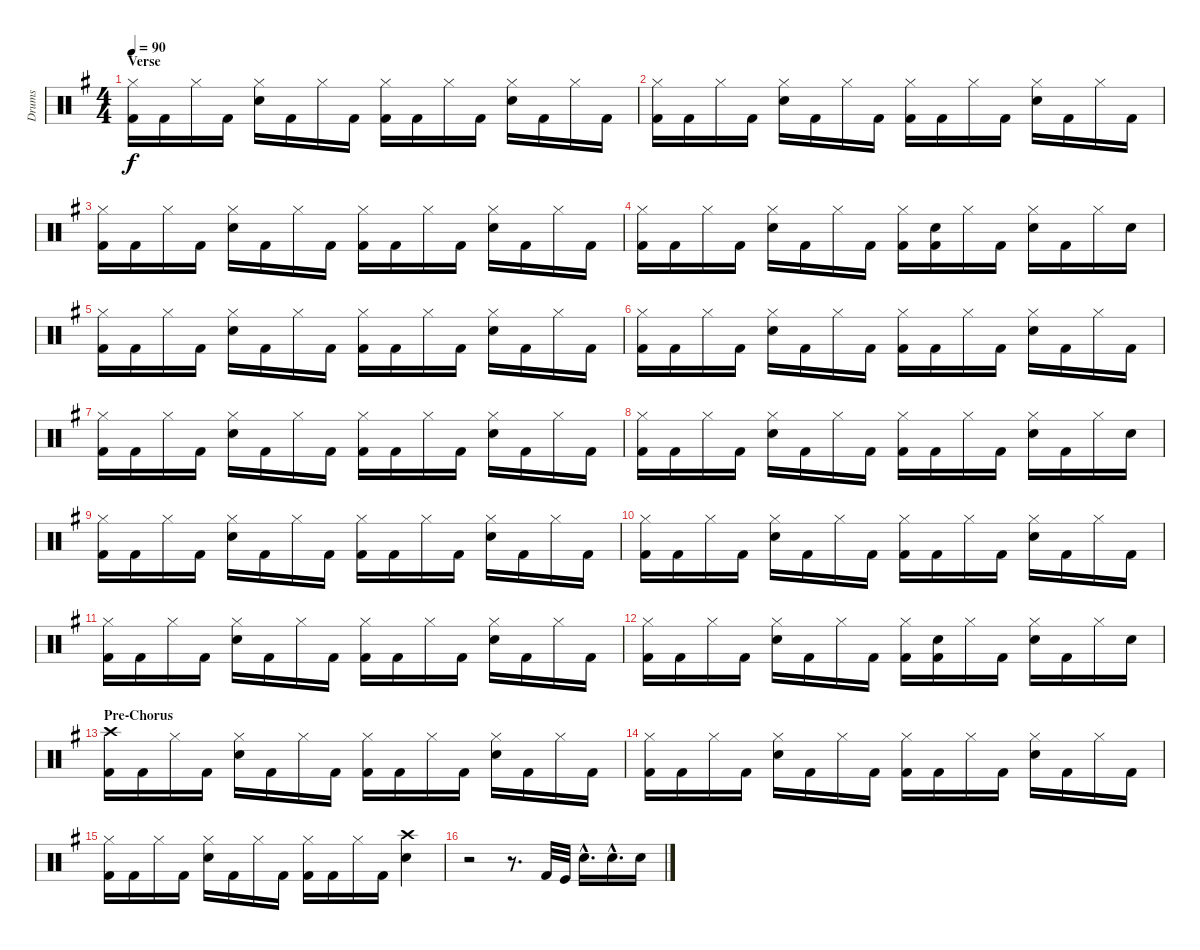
\track ("Drums" "Drums") {instrument percussion}
\staff {score}
\articulation defaults
\ts (4 4)
\section ("" "Verse")
\tempo 90
\clef neutral
\ks g
("Hi-Hat (closed)" "Kick (hit) 2").16{dy f volume 13} "Kick (hit) 2".16 "Hi-Hat (closed)".16 "Kick (hit) 2".16 ("Hi-Hat (closed)" "Electric Snare (hit)").16 "Kick (hit) 2".16 "Hi-Hat (closed)".16 "Kick (hit) 2".16 ("Hi-Hat (closed)" "Kick (hit) 2").16 "Kick (hit) 2".16 "Hi-Hat (closed)".16 "Kick (hit) 2".16 ("Hi-Hat (closed)" "Electric Snare (hit)").16 "Kick (hit) 2".16 "Hi-Hat (closed)".16 "Kick (hit) 2".16 |
("Hi-Hat (closed)" "Kick (hit) 2").16 "Kick (hit) 2".16 "Hi-Hat (closed)".16 "Kick (hit) 2".16 ("Hi-Hat (closed)" "Electric Snare (hit)").16 "Kick (hit) 2".16 "Hi-Hat (closed)".16 "Kick (hit) 2".16 ("Hi-Hat (closed)" "Kick (hit) 2").16 "Kick (hit) 2".16 "Hi-Hat (closed)".16 "Kick (hit) 2".16 ("Hi-Hat (closed)" "Electric Snare (hit)").16 "Kick (hit) 2".16 "Hi-Hat (closed)".16 "Kick (hit) 2".16 |
("Hi-Hat (closed)" "Kick (hit) 2").16 "Kick (hit) 2".16 "Hi-Hat (closed)".16 "Kick (hit) 2".16 ("Hi-Hat (closed)" "Electric Snare (hit)").16 "Kick (hit) 2".16 "Hi-Hat (closed)".16 "Kick (hit) 2".16 ("Hi-Hat (closed)" "Kick (hit) 2").16 "Kick (hit) 2".16 "Hi-Hat (closed)".16 "Kick (hit) 2".16 ("Hi-Hat (closed)" "Electric Snare (hit)").16 "Kick (hit) 2".16 "Hi-Hat (closed)".16 "Kick (hit) 2".16 |
("Hi-Hat (closed)" "Kick (hit) 2").16 "Kick (hit) 2".16 "Hi-Hat (closed)".16 "Kick (hit) 2".16 ("Hi-Hat (closed)" "Electric Snare (hit)").16 "Kick (hit) 2".16 "Hi-Hat (closed)".16 "Kick (hit) 2".16 ("Hi-Hat (closed)" "Kick (hit) 2").16 ("Electric Snare (hit)" "Kick (hit) 2").16 "Hi-Hat (closed)".16 "Kick (hit) 2".16 ("Hi-Hat (closed)" "Electric Snare (hit)").16 "Kick (hit) 2".16 "Hi-Hat (closed)".16 "Electric Snare (hit)".16 |
("Hi-Hat (closed)" "Kick (hit) 2").16 "Kick (hit) 2".16 "Hi-Hat (closed)".16 "Kick (hit) 2".16 ("Hi-Hat (closed)" "Electric Snare (hit)").16 "Kick (hit) 2".16 "Hi-Hat (closed)".16 "Kick (hit) 2".16 ("Hi-Hat (closed)" "Kick (hit) 2").16 "Kick (hit) 2".16 "Hi-Hat (closed)".16 "Kick (hit) 2".16 ("Hi-Hat (closed)" "Electric Snare (hit)").16 "Kick (hit) 2".16 "Hi-Hat (closed)".16 "Kick (hit) 2".16 |
("Hi-Hat (closed)" "Kick (hit) 2").16 "Kick (hit) 2".16 "Hi-Hat (closed)".16 "Kick (hit) 2".16 ("Hi-Hat (closed)" "Electric Snare (hit)").16 "Kick (hit) 2".16 "Hi-Hat (closed)".16 "Kick (hit) 2".16 ("Hi-Hat (closed)" "Kick (hit) 2").16 "Kick (hit) 2".16 "Hi-Hat (closed)".16 "Kick (hit) 2".16 ("Hi-Hat (closed)" "Electric Snare (hit)").16 "Kick (hit) 2".16 "Hi-Hat (closed)".16 "Kick (hit) 2".16 |
("Hi-Hat (closed)" "Kick (hit) 2").16 "Kick (hit) 2".16 "Hi-Hat (closed)".16 "Kick (hit) 2".16 ("Hi-Hat (closed)" "Electric Snare (hit)").16 "Kick (hit) 2".16 "Hi-Hat (closed)".16 "Kick (hit) 2".16 ("Hi-Hat (closed)" "Kick (hit) 2").16 "Kick (hit) 2".16 "Hi-Hat (closed)".16 "Kick (hit) 2".16 ("Hi-Hat (closed)" "Electric Snare (hit)").16 "Kick (hit) 2".16 "Hi-Hat (closed)".16 "Kick (hit) 2".16 |
("Hi-Hat (closed)" "Kick (hit) 2").16 "Kick (hit) 2".16 "Hi-Hat (closed)".16 "Kick (hit) 2".16 ("Hi-Hat (closed)" "Electric Snare (hit)").16 "Kick (hit) 2".16 "Hi-Hat (closed)".16 "Kick (hit) 2".16 ("Hi-Hat (closed)" "Kick (hit) 2").16 "Kick (hit) 2".16 "Hi-Hat (closed)".16 "Kick (hit) 2".16 ("Hi-Hat (closed)" "Electric Snare (hit)").16 "Kick (hit) 2".16 "Hi-Hat (closed)".16 "Electric Snare (hit)".16 |
("Hi-Hat (closed)" "Kick (hit) 2").16 "Kick (hit) 2".16 "Hi-Hat (closed)".16 "Kick (hit) 2".16 ("Hi-Hat (closed)" "Electric Snare (hit)").16 "Kick (hit) 2".16 "Hi-Hat (closed)".16 "Kick (hit) 2".16 ("Hi-Hat (closed)" "Kick (hit) 2").16 "Kick (hit) 2".16 "Hi-Hat (closed)".16 "Kick (hit) 2".16 ("Hi-Hat (closed)" "Electric Snare (hit)").16 "Kick (hit) 2".16 "Hi-Hat (closed)".16 "Kick (hit) 2".16 |
("Hi-Hat (closed)" "Kick (hit) 2").16 "Kick (hit) 2".16 "Hi-Hat (closed)".16 "Kick (hit) 2".16 ("Hi-Hat (closed)" "Electric Snare (hit)").16 "Kick (hit) 2".16 "Hi-Hat (closed)".16 "Kick (hit) 2".16 ("Hi-Hat (closed)" "Kick (hit) 2").16 "Kick (hit) 2".16 "Hi-Hat (closed)".16 "Kick (hit) 2".16 ("Hi-Hat (closed)" "Electric Snare (hit)").16 "Kick (hit) 2".16 "Hi-Hat (closed)".16 "Kick (hit) 2".16 |
("Hi-Hat (closed)" "Kick (hit) 2").16 "Kick (hit) 2".16 "Hi-Hat (closed)".16 "Kick (hit) 2".16 ("Hi-Hat (closed)" "Electric Snare (hit)").16 "Kick (hit) 2".16 "Hi-Hat (closed)".16 "Kick (hit) 2".16 ("Hi-Hat (closed)" "Kick (hit) 2").16 "Kick (hit) 2".16 "Hi-Hat (closed)".16 "Kick (hit) 2".16 ("Hi-Hat (closed)" "Electric Snare (hit)").16 "Kick (hit) 2".16 "Hi-Hat (closed)".16 "Kick (hit) 2".16 |
("Hi-Hat (closed)" "Kick (hit) 2").16 "Kick (hit) 2".16 "Hi-Hat (closed)".16 "Kick (hit) 2".16 ("Hi-Hat (closed)" "Electric Snare (hit)").16 "Kick (hit) 2".16 "Hi-Hat (closed)".16 "Kick (hit) 2".16 ("Hi-Hat (closed)" "Kick (hit) 2").16 ("Electric Snare (hit)" "Kick (hit) 2").16 "Hi-Hat (closed)".16 "Kick (hit) 2".16 ("Hi-Hat (closed)" "Electric Snare (hit)").16 "Kick (hit) 2".16 "Hi-Hat (closed)".16 "Electric Snare (hit)".16 |
\section ("" "Pre-Chorus")
("Crash high (hit)" "Kick (hit) 2").16 "Kick (hit) 2".16 "Hi-Hat (closed)".16 "Kick (hit) 2".16 ("Hi-Hat (closed)" "Electric Snare (hit)").16 "Kick (hit) 2".16 "Hi-Hat (closed)".16 "Kick (hit) 2".16 ("Hi-Hat (closed)" "Kick (hit) 2").16 "Kick (hit) 2".16 "Hi-Hat (closed)".16 "Kick (hit) 2".16 ("Hi-Hat (closed)" "Electric Snare (hit)").16 "Kick (hit) 2".16 "Hi-Hat (closed)".16 "Kick (hit) 2".16 |
("Hi-Hat (closed)" "Kick (hit) 2").16 "Kick (hit) 2".16 "Hi-Hat (closed)".16 "Kick (hit) 2".16 ("Hi-Hat (closed)" "Electric Snare (hit)").16 "Kick (hit) 2".16 "Hi-Hat (closed)".16 "Kick (hit) 2".16 ("Hi-Hat (closed)" "Kick (hit) 2").16 "Kick (hit) 2".16 "Hi-Hat (closed)".16 "Kick (hit) 2".16 ("Hi-Hat (closed)" "Electric Snare (hit)").16 "Kick (hit) 2".16 "Hi-Hat (closed)".16 "Kick (hit) 2".16 |
("Hi-Hat (closed)" "Kick (hit) 2").16 "Kick (hit) 2".16 "Hi-Hat (closed)".16 "Kick (hit) 2".16 ("Hi-Hat (closed)" "Electric Snare (hit)").16 "Kick (hit) 2".16 "Hi-Hat (closed)".16 "Kick (hit) 2".16 ("Hi-Hat (closed)" "Kick (hit) 2").16 "Kick (hit) 2".16 "Hi-Hat (closed)".16 "Kick (hit) 2".16 ("Crash high (hit)" "Electric Snare (hit)").4 |
r.2 r.8{d} "Kick (hit) 2".32 "Kick (hit)".32 "Electric Snare (hit)"{hac}.16{d} "Electric Snare (hit)"{hac}.16{d} "Electric Snare (hit)".16
